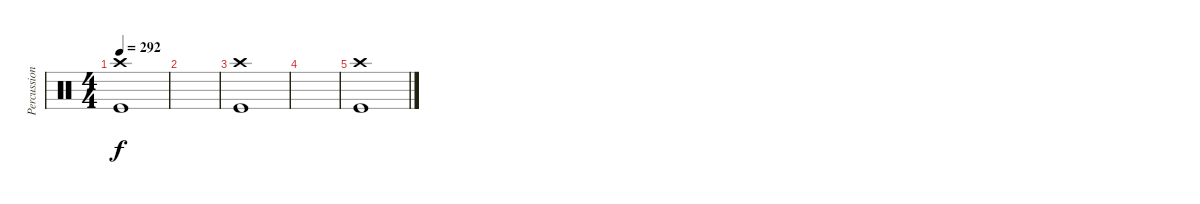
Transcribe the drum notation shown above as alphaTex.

\track ("Percussion" "Percussion") {instrument percussion}
\staff {score}
\articulation defaults
\ts (4 4)
\tempo 292
\clef neutral
\ks c
("Crash high (hit)" "Kick (hit)").1{dy f} |
|
("Crash high (hit)" "Kick (hit)").1 |
|
("Crash high (hit)" "Kick (hit)").1
